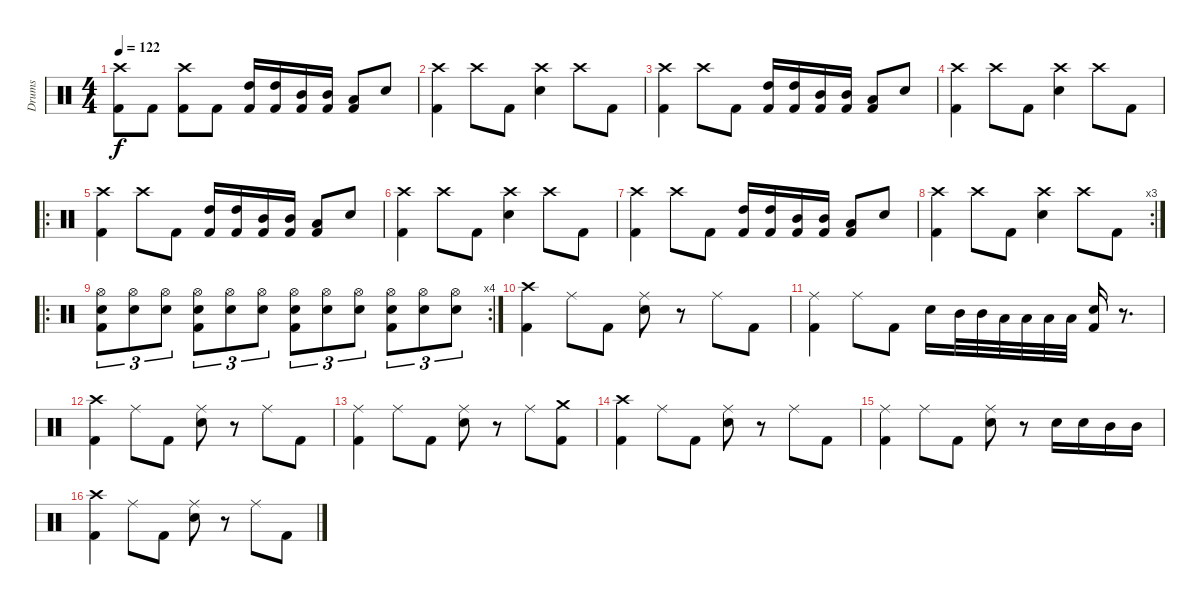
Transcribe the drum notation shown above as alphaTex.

\track ("Drums" "Drums") {instrument percussion}
\staff {score}
\articulation defaults
\ts (4 4)
\tempo 122
\clef neutral
\ks c
("Crash high (hit)" "Kick (hit) 2").8{dy f} "Kick (hit) 2".8 ("Crash high (hit)" "Kick (hit) 2").8 "Kick (hit) 2".8 ("High Tom (hit)" "Kick (hit) 2").16 ("High Tom (hit)" "Kick (hit) 2").16 ("Mid Tom (hit)" "Kick (hit) 2").16 ("Mid Tom (hit)" "Kick (hit) 2").16 ("Low Tom (hit)" "Kick (hit) 2").8 "Electric Snare (hit)".8 |
("Crash high (hit)" "Kick (hit) 2").4 "Crash high (hit)".8 "Kick (hit) 2".8 ("Crash high (hit)" "Electric Snare (hit)").4 "Crash high (hit)".8 "Kick (hit) 2".8 |
("Crash high (hit)" "Kick (hit) 2").4 "Crash high (hit)".8 "Kick (hit) 2".8 ("High Tom (hit)" "Kick (hit) 2").16 ("High Tom (hit)" "Kick (hit) 2").16 ("Mid Tom (hit)" "Kick (hit) 2").16 ("Mid Tom (hit)" "Kick (hit) 2").16 ("Low Tom (hit)" "Kick (hit) 2").8 "Electric Snare (hit)".8 |
("Crash high (hit)" "Kick (hit) 2").4 "Crash high (hit)".8 "Kick (hit) 2".8 ("Crash high (hit)" "Electric Snare (hit)").4 "Crash high (hit)".8 "Kick (hit) 2".8 |
\ro
("Crash high (hit)" "Kick (hit) 2").4 "Crash high (hit)".8 "Kick (hit) 2".8 ("High Tom (hit)" "Kick (hit) 2").16 ("High Tom (hit)" "Kick (hit) 2").16 ("Mid Tom (hit)" "Kick (hit) 2").16 ("Mid Tom (hit)" "Kick (hit) 2").16 ("Low Tom (hit)" "Kick (hit) 2").8 "Electric Snare (hit)".8 |
("Crash high (hit)" "Kick (hit) 2").4 "Crash high (hit)".8 "Kick (hit) 2".8 ("Crash high (hit)" "Electric Snare (hit)").4 "Crash high (hit)".8 "Kick (hit) 2".8 |
("Crash high (hit)" "Kick (hit) 2").4 "Crash high (hit)".8 "Kick (hit) 2".8 ("High Tom (hit)" "Kick (hit) 2").16 ("High Tom (hit)" "Kick (hit) 2").16 ("Mid Tom (hit)" "Kick (hit) 2").16 ("Mid Tom (hit)" "Kick (hit) 2").16 ("Low Tom (hit)" "Kick (hit) 2").8 "Electric Snare (hit)".8 |
\rc 3
("Crash high (hit)" "Kick (hit) 2").4 "Crash high (hit)".8 "Kick (hit) 2".8 ("Crash high (hit)" "Electric Snare (hit)").4 "Crash high (hit)".8 "Kick (hit) 2".8 |
\ro
\rc 4
("Hi-Hat (open)" "Electric Snare (hit)" "Kick (hit) 2").8{tu (3 2)} ("Hi-Hat (open)" "Electric Snare (hit)").8{tu (3 2)} ("Hi-Hat (open)" "Electric Snare (hit)").8{tu (3 2)} ("Hi-Hat (open)" "Electric Snare (hit)" "Kick (hit) 2").8{tu (3 2)} ("Hi-Hat (open)" "Electric Snare (hit)").8{tu (3 2)} ("Hi-Hat (open)" "Electric Snare (hit)").8{tu (3 2)} ("Hi-Hat (open)" "Electric Snare (hit)" "Kick (hit) 2").8{tu (3 2)} ("Hi-Hat (open)" "Electric Snare (hit)").8{tu (3 2)} ("Hi-Hat (open)" "Electric Snare (hit)").8{tu (3 2)} ("Hi-Hat (open)" "Electric Snare (hit)" "Kick (hit) 2").8{tu (3 2)} ("Hi-Hat (open)" "Electric Snare (hit)").8{tu (3 2)} ("Hi-Hat (open)" "Electric Snare (hit)").8{tu (3 2)} |
("Crash high (hit)" "Kick (hit) 2").4 "Ride (middle)".8 "Kick (hit) 2".8 ("Ride (middle)" "Electric Snare (hit)").8 r.8 "Ride (middle)".8 "Kick (hit) 2".8 |
("Ride (middle)" "Kick (hit) 2").4 "Ride (middle)".8 "Kick (hit) 2".8 "Electric Snare (hit)".16 "Mid Tom (hit)".32 "Mid Tom (hit)".32 "Low Tom (hit)".32 "Low Tom (hit)".32 "Low Tom (hit)".32 "Low Tom (hit)".32 ("Electric Snare (hit)" "Kick (hit) 2").16 r.8{d} |
("Crash high (hit)" "Kick (hit) 2").4 "Ride (middle)".8 "Kick (hit) 2".8 ("Ride (middle)" "Electric Snare (hit)").8 r.8 "Ride (middle)".8 "Kick (hit) 2".8 |
("Ride (middle)" "Kick (hit) 2").4 "Ride (middle)".8 "Kick (hit) 2".8 ("Ride (middle)" "Electric Snare (hit)").8 r.8 "Ride (middle)".8 ("Crash medium (hit)" "Kick (hit) 2").8 |
("Crash high (hit)" "Kick (hit) 2").4 "Ride (middle)".8 "Kick (hit) 2".8 ("Ride (middle)" "Electric Snare (hit)").8 r.8 "Ride (middle)".8 "Kick (hit) 2".8 |
("Ride (middle)" "Kick (hit) 2").4 "Ride (middle)".8 "Kick (hit) 2".8 ("Ride (middle)" "Electric Snare (hit)").8 r.8 "Electric Snare (hit)".16 "Electric Snare (hit)".16 "Mid Tom (hit)".16 "Mid Tom (hit)".16 |
("Crash high (hit)" "Kick (hit) 2").4 "Ride (middle)".8 "Kick (hit) 2".8 ("Ride (middle)" "Electric Snare (hit)").8 r.8 "Ride (middle)".8 "Kick (hit) 2".8
